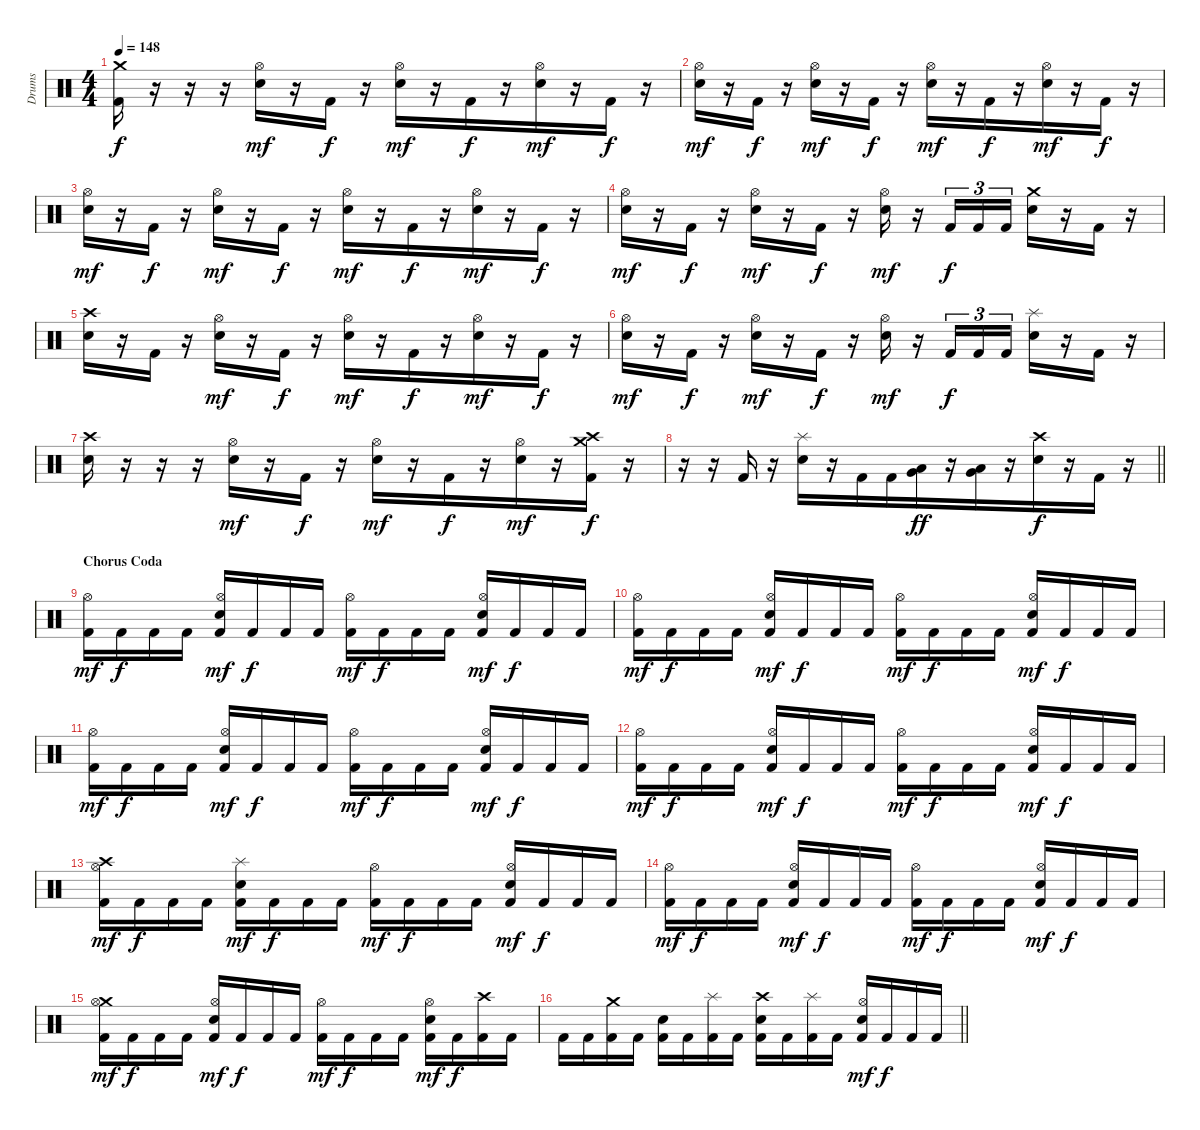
\track ("Drums" "Drums") {instrument percussion}
\staff {score}
\articulation defaults
\ts (4 4)
\tempo 148
\clef neutral
\ks c
("Crash medium (hit)" "Kick (hit) 2").16{dy f} r.16 r.16 r.16 ("Hi-Hat (open)" "Snare (hit) 2").16{dy mf} r.16{beam merge} "Kick (hit) 2".16{dy f} r.16 ("Hi-Hat (open)" "Snare (hit) 2").16{dy mf} r.16{beam merge} "Kick (hit) 2".16{dy f beam merge} r.16 ("Hi-Hat (open)" "Snare (hit) 2").16{dy mf beam merge} r.16 "Kick (hit) 2".16{dy f} r.16 |
("Hi-Hat (open)" "Snare (hit) 2").16{dy mf} r.16 "Kick (hit) 2".16{dy f} r.16 ("Hi-Hat (open)" "Snare (hit) 2").16{dy mf} r.16{beam merge} "Kick (hit) 2".16{dy f} r.16 ("Hi-Hat (open)" "Snare (hit) 2").16{dy mf} r.16{beam merge} "Kick (hit) 2".16{dy f beam merge} r.16 ("Hi-Hat (open)" "Snare (hit) 2").16{dy mf beam merge} r.16 "Kick (hit) 2".16{dy f} r.16 |
("Hi-Hat (open)" "Snare (hit) 2").16{dy mf} r.16 "Kick (hit) 2".16{dy f} r.16 ("Hi-Hat (open)" "Snare (hit) 2").16{dy mf} r.16{beam merge} "Kick (hit) 2".16{dy f} r.16 ("Hi-Hat (open)" "Snare (hit) 2").16{dy mf} r.16{beam merge} "Kick (hit) 2".16{dy f beam merge} r.16 ("Hi-Hat (open)" "Snare (hit) 2").16{dy mf beam merge} r.16 "Kick (hit) 2".16{dy f} r.16 |
("Hi-Hat (open)" "Snare (hit) 2").16{dy mf} r.16 "Kick (hit) 2".16{dy f} r.16 ("Hi-Hat (open)" "Snare (hit) 2").16{dy mf} r.16{beam merge} "Kick (hit) 2".16{dy f} r.16 ("Hi-Hat (open)" "Snare (hit) 2").16{dy mf} r.16 "Kick (hit) 2".16{tu (3 2) dy f beam merge} "Kick (hit) 2".16{tu (3 2) beam merge} "Kick (hit) 2".16{tu (3 2)} ("Crash medium (hit)" "Snare (hit) 2").16{beam merge} r.16 "Kick (hit) 2".16 r.16 |
("Crash high (hit)" "Snare (hit) 2").16 r.16 "Kick (hit) 2".16 r.16 ("Hi-Hat (open)" "Snare (hit) 2").16{dy mf} r.16{beam merge} "Kick (hit) 2".16{dy f} r.16 ("Hi-Hat (open)" "Snare (hit) 2").16{dy mf} r.16{beam merge} "Kick (hit) 2".16{dy f beam merge} r.16 ("Hi-Hat (open)" "Snare (hit) 2").16{dy mf beam merge} r.16 "Kick (hit) 2".16{dy f} r.16 |
("Hi-Hat (open)" "Snare (hit) 2").16{dy mf} r.16 "Kick (hit) 2".16{dy f} r.16 ("Hi-Hat (open)" "Snare (hit) 2").16{dy mf} r.16{beam merge} "Kick (hit) 2".16{dy f} r.16 ("Hi-Hat (open)" "Snare (hit) 2").16{dy mf} r.16 "Kick (hit) 2".16{tu (3 2) dy f beam merge} "Kick (hit) 2".16{tu (3 2) beam merge} "Kick (hit) 2".16{tu (3 2)} ("Splash (hit)" "Snare (hit) 2").16{beam merge} r.16 "Kick (hit) 2".16 r.16 |
("Crash high (hit)" "Snare (hit) 2").16 r.16 r.16 r.16 ("Hi-Hat (open)" "Snare (hit) 2").16{dy mf} r.16{beam merge} "Kick (hit) 2".16{dy f} r.16 ("Hi-Hat (open)" "Snare (hit) 2").16{dy mf} r.16{beam merge} "Kick (hit) 2".16{dy f beam merge} r.16 ("Hi-Hat (open)" "Snare (hit) 2").16{dy mf beam merge} r.16 ("Crash medium (hit)" "Crash high (hit)" "Kick (hit) 2").16{dy f} r.16 |
\barLineRight lightlight
r.16{beam merge} r.16{beam merge} "Kick (hit) 2".16 r.16{beam merge} ("Splash (hit)" "Snare (hit) 2").16{beam merge} r.16 "Kick (hit) 2".16{beam merge} "Kick (hit) 2".16{beam merge} ("Very Low Tom (hit)" "Low Floor Tom (hit)").16{dy ff beam merge} r.16 ("Very Low Tom (hit)" "Low Floor Tom (hit)").16{beam merge} r.16{beam merge} ("Crash high (hit)" "Snare (hit) 2").16{dy f} r.16 "Kick (hit) 2".16 r.16 |
\section ("" "Chorus Coda")
("Hi-Hat (open)" "Kick (hit) 2").16{dy mf volume 13} "Kick (hit) 2".16{dy f} "Kick (hit) 2".16 "Kick (hit) 2".16 ("Hi-Hat (open)" "Snare (hit) 2" "Kick (hit) 2").16{dy mf} "Kick (hit) 2".16{dy f beam merge} "Kick (hit) 2".16 "Kick (hit) 2".16 ("Hi-Hat (open)" "Kick (hit) 2").16{dy mf} "Kick (hit) 2".16{dy f beam merge} "Kick (hit) 2".16{beam merge} "Kick (hit) 2".16 ("Hi-Hat (open)" "Snare (hit) 2" "Kick (hit) 2").16{dy mf beam merge} "Kick (hit) 2".16{dy f} "Kick (hit) 2".16 "Kick (hit) 2".16 |
("Hi-Hat (open)" "Kick (hit) 2").16{dy mf} "Kick (hit) 2".16{dy f} "Kick (hit) 2".16 "Kick (hit) 2".16 ("Hi-Hat (open)" "Snare (hit) 2" "Kick (hit) 2").16{dy mf} "Kick (hit) 2".16{dy f beam merge} "Kick (hit) 2".16 "Kick (hit) 2".16 ("Hi-Hat (open)" "Kick (hit) 2").16{dy mf} "Kick (hit) 2".16{dy f beam merge} "Kick (hit) 2".16{beam merge} "Kick (hit) 2".16 ("Hi-Hat (open)" "Snare (hit) 2" "Kick (hit) 2").16{dy mf beam merge} "Kick (hit) 2".16{dy f} "Kick (hit) 2".16 "Kick (hit) 2".16 |
("Hi-Hat (open)" "Kick (hit) 2").16{dy mf} "Kick (hit) 2".16{dy f} "Kick (hit) 2".16 "Kick (hit) 2".16 ("Hi-Hat (open)" "Snare (hit) 2" "Kick (hit) 2").16{dy mf} "Kick (hit) 2".16{dy f beam merge} "Kick (hit) 2".16 "Kick (hit) 2".16 ("Hi-Hat (open)" "Kick (hit) 2").16{dy mf} "Kick (hit) 2".16{dy f beam merge} "Kick (hit) 2".16{beam merge} "Kick (hit) 2".16 ("Hi-Hat (open)" "Snare (hit) 2" "Kick (hit) 2").16{dy mf beam merge} "Kick (hit) 2".16{dy f} "Kick (hit) 2".16 "Kick (hit) 2".16 |
("Hi-Hat (open)" "Kick (hit) 2").16{dy mf} "Kick (hit) 2".16{dy f} "Kick (hit) 2".16 "Kick (hit) 2".16 ("Hi-Hat (open)" "Snare (hit) 2" "Kick (hit) 2").16{dy mf} "Kick (hit) 2".16{dy f beam merge} "Kick (hit) 2".16 "Kick (hit) 2".16 ("Hi-Hat (open)" "Kick (hit) 2").16{dy mf} "Kick (hit) 2".16{dy f beam merge} "Kick (hit) 2".16{beam merge} "Kick (hit) 2".16 ("Hi-Hat (open)" "Snare (hit) 2" "Kick (hit) 2").16{dy mf beam merge} "Kick (hit) 2".16{dy f} "Kick (hit) 2".16 "Kick (hit) 2".16 |
("Crash high (hit)" "Hi-Hat (open)" "Kick (hit) 2").16{dy mf} "Kick (hit) 2".16{dy f} "Kick (hit) 2".16 "Kick (hit) 2".16 ("Splash (hit)" "Snare (hit) 2" "Kick (hit) 2").16{dy mf} "Kick (hit) 2".16{dy f beam merge} "Kick (hit) 2".16 "Kick (hit) 2".16 ("Hi-Hat (open)" "Kick (hit) 2").16{dy mf} "Kick (hit) 2".16{dy f beam merge} "Kick (hit) 2".16{beam merge} "Kick (hit) 2".16 ("Hi-Hat (open)" "Snare (hit) 2" "Kick (hit) 2").16{dy mf beam merge} "Kick (hit) 2".16{dy f} "Kick (hit) 2".16 "Kick (hit) 2".16 |
("Hi-Hat (open)" "Kick (hit) 2").16{dy mf} "Kick (hit) 2".16{dy f} "Kick (hit) 2".16 "Kick (hit) 2".16 ("Hi-Hat (open)" "Snare (hit) 2" "Kick (hit) 2").16{dy mf} "Kick (hit) 2".16{dy f beam merge} "Kick (hit) 2".16 "Kick (hit) 2".16 ("Hi-Hat (open)" "Kick (hit) 2").16{dy mf} "Kick (hit) 2".16{dy f beam merge} "Kick (hit) 2".16{beam merge} "Kick (hit) 2".16 ("Hi-Hat (open)" "Snare (hit) 2" "Kick (hit) 2").16{dy mf beam merge} "Kick (hit) 2".16{dy f} "Kick (hit) 2".16 "Kick (hit) 2".16 |
("Crash medium (hit)" "Hi-Hat (open)" "Kick (hit) 2").16{dy mf} "Kick (hit) 2".16{dy f} "Kick (hit) 2".16 "Kick (hit) 2".16 ("Hi-Hat (open)" "Snare (hit) 2" "Kick (hit) 2").16{dy mf} "Kick (hit) 2".16{dy f beam merge} "Kick (hit) 2".16 "Kick (hit) 2".16 ("Hi-Hat (open)" "Kick (hit) 2").16{dy mf} "Kick (hit) 2".16{dy f beam merge} "Kick (hit) 2".16{beam merge} "Kick (hit) 2".16 ("Hi-Hat (open)" "Snare (hit) 2" "Kick (hit) 2").16{dy mf beam merge} "Kick (hit) 2".16{dy f} ("Crash high (hit)" "Kick (hit) 2").16 "Kick (hit) 2".16 |
\barLineRight lightlight "Kick (hit) 2".16 "Kick (hit) 2".16
("Crash medium (hit)" "Kick (hit) 2").16 "Kick (hit) 2".16 ("Snare (hit) 2" "Kick (hit) 2").16 "Kick (hit) 2".16{beam merge} ("Splash (hit)" "Kick (hit) 2").16 "Kick (hit) 2".16 ("Crash high (hit)" "Snare (hit) 2" "Kick (hit) 2").16 "Kick (hit) 2".16{beam merge} ("Splash (hit)" "Kick (hit) 2").16{beam merge} "Kick (hit) 2".16 ("Hi-Hat (open)" "Snare (hit) 2" "Kick (hit) 2").16{dy mf beam merge} "Kick (hit) 2".16{dy f} "Kick (hit) 2".16 "Kick (hit) 2".16
